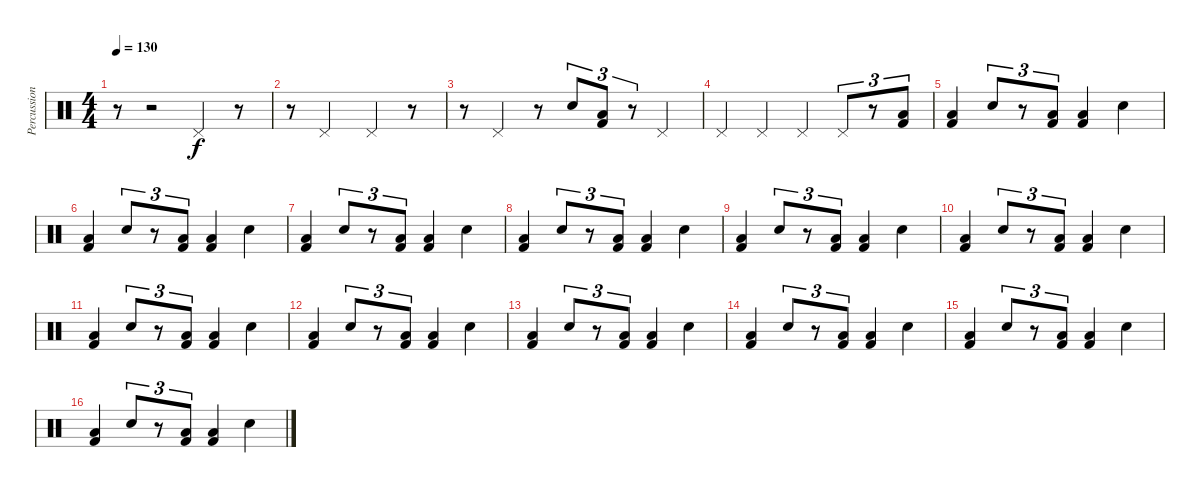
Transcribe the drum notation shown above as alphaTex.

\track ("Percussion" "Percussion") {instrument percussion}
\staff {score}
\articulation defaults
\ts (4 4)
\tempo 130
\clef neutral
\ks c
r.8{dy f} r.2 "Pedal Hi-Hat (hit)".4 r.8 |
r.8 "Pedal Hi-Hat (hit)".2 "Pedal Hi-Hat (hit)".4 r.8 |
r.8 "Pedal Hi-Hat (hit)".4 r.8 "Snare (hit) 2".8{tu (3 2)} ("Low Floor Tom (hit)" "Kick (hit) 2").8{tu (3 2)} r.8{tu (3 2)} "Pedal Hi-Hat (hit)".4 |
"Pedal Hi-Hat (hit)".4 "Pedal Hi-Hat (hit)".4 "Pedal Hi-Hat (hit)".4 "Pedal Hi-Hat (hit)".8{tu (3 2)} r.8{tu (3 2)} ("Low Floor Tom (hit)" "Kick (hit) 2").8{tu (3 2)} |
("Low Floor Tom (hit)" "Kick (hit) 2").4 "Snare (hit) 2".8{tu (3 2)} r.8{tu (3 2)} ("Low Floor Tom (hit)" "Kick (hit) 2").8{tu (3 2)} ("Low Floor Tom (hit)" "Kick (hit) 2").4 "Snare (hit) 2".4 |
("Low Floor Tom (hit)" "Kick (hit) 2").4 "Snare (hit) 2".8{tu (3 2)} r.8{tu (3 2)} ("Low Floor Tom (hit)" "Kick (hit) 2").8{tu (3 2)} ("Low Floor Tom (hit)" "Kick (hit) 2").4 "Snare (hit) 2".4 |
("Low Floor Tom (hit)" "Kick (hit) 2").4 "Snare (hit) 2".8{tu (3 2)} r.8{tu (3 2)} ("Low Floor Tom (hit)" "Kick (hit) 2").8{tu (3 2)} ("Low Floor Tom (hit)" "Kick (hit) 2").4 "Snare (hit) 2".4 |
("Low Floor Tom (hit)" "Kick (hit) 2").4 "Snare (hit) 2".8{tu (3 2)} r.8{tu (3 2)} ("Low Floor Tom (hit)" "Kick (hit) 2").8{tu (3 2)} ("Low Floor Tom (hit)" "Kick (hit) 2").4 "Snare (hit) 2".4 |
("Low Floor Tom (hit)" "Kick (hit) 2").4 "Snare (hit) 2".8{tu (3 2)} r.8{tu (3 2)} ("Low Floor Tom (hit)" "Kick (hit) 2").8{tu (3 2)} ("Low Floor Tom (hit)" "Kick (hit) 2").4 "Snare (hit) 2".4 |
("Low Floor Tom (hit)" "Kick (hit) 2").4 "Snare (hit) 2".8{tu (3 2)} r.8{tu (3 2)} ("Low Floor Tom (hit)" "Kick (hit) 2").8{tu (3 2)} ("Low Floor Tom (hit)" "Kick (hit) 2").4 "Snare (hit) 2".4 |
("Low Floor Tom (hit)" "Kick (hit) 2").4 "Snare (hit) 2".8{tu (3 2)} r.8{tu (3 2)} ("Low Floor Tom (hit)" "Kick (hit) 2").8{tu (3 2)} ("Low Floor Tom (hit)" "Kick (hit) 2").4 "Snare (hit) 2".4 |
("Low Floor Tom (hit)" "Kick (hit) 2").4 "Snare (hit) 2".8{tu (3 2)} r.8{tu (3 2)} ("Low Floor Tom (hit)" "Kick (hit) 2").8{tu (3 2)} ("Low Floor Tom (hit)" "Kick (hit) 2").4 "Snare (hit) 2".4 |
("Low Floor Tom (hit)" "Kick (hit) 2").4 "Snare (hit) 2".8{tu (3 2)} r.8{tu (3 2)} ("Low Floor Tom (hit)" "Kick (hit) 2").8{tu (3 2)} ("Low Floor Tom (hit)" "Kick (hit) 2").4 "Snare (hit) 2".4 |
("Low Floor Tom (hit)" "Kick (hit) 2").4 "Snare (hit) 2".8{tu (3 2)} r.8{tu (3 2)} ("Low Floor Tom (hit)" "Kick (hit) 2").8{tu (3 2)} ("Low Floor Tom (hit)" "Kick (hit) 2").4 "Snare (hit) 2".4 |
("Low Floor Tom (hit)" "Kick (hit) 2").4 "Snare (hit) 2".8{tu (3 2)} r.8{tu (3 2)} ("Low Floor Tom (hit)" "Kick (hit) 2").8{tu (3 2)} ("Low Floor Tom (hit)" "Kick (hit) 2").4 "Snare (hit) 2".4 |
("Low Floor Tom (hit)" "Kick (hit) 2").4 "Snare (hit) 2".8{tu (3 2)} r.8{tu (3 2)} ("Low Floor Tom (hit)" "Kick (hit) 2").8{tu (3 2)} ("Low Floor Tom (hit)" "Kick (hit) 2").4 "Snare (hit) 2".4
